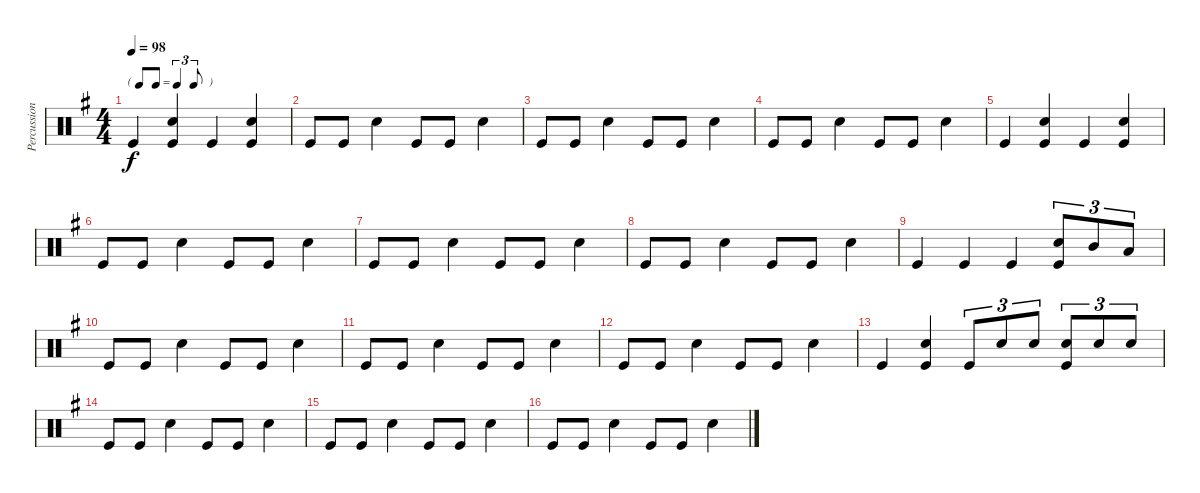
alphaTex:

\track ("Percussion" "Percussion") {instrument percussion}
\staff {score}
\articulation defaults
\ts (4 4)
\tf triplet8th
\tempo 98
\clef neutral
\ks g "Kick (hit)".4{dy f}
("Snare (hit) 2" "Kick (hit)").4 "Kick (hit)".4 ("Snare (hit) 2" "Kick (hit)").4 |
"Kick (hit)".8 "Kick (hit)".8 "Snare (hit) 2".4 "Kick (hit)".8 "Kick (hit)".8 "Snare (hit) 2".4 |
"Kick (hit)".8 "Kick (hit)".8 "Snare (hit) 2".4 "Kick (hit)".8 "Kick (hit)".8 "Snare (hit) 2".4 |
"Kick (hit)".8 "Kick (hit)".8 "Snare (hit) 2".4 "Kick (hit)".8 "Kick (hit)".8 "Snare (hit) 2".4 |
"Kick (hit)".4 ("Snare (hit) 2" "Kick (hit)").4 "Kick (hit)".4 ("Snare (hit) 2" "Kick (hit)").4 |
"Kick (hit)".8 "Kick (hit)".8 "Snare (hit) 2".4 "Kick (hit)".8 "Kick (hit)".8 "Snare (hit) 2".4 |
"Kick (hit)".8 "Kick (hit)".8 "Snare (hit) 2".4 "Kick (hit)".8 "Kick (hit)".8 "Snare (hit) 2".4 |
"Kick (hit)".8 "Kick (hit)".8 "Snare (hit) 2".4 "Kick (hit)".8 "Kick (hit)".8 "Snare (hit) 2".4 |
"Kick (hit)".4 "Kick (hit)".4 "Kick (hit)".4 ("Snare (hit) 2" "Kick (hit)").8{tu (3 2)} "Mid Tom (hit)".8{tu (3 2)} "Low Tom (hit)".8{tu (3 2)} |
"Kick (hit)".8 "Kick (hit)".8 "Snare (hit) 2".4 "Kick (hit)".8 "Kick (hit)".8 "Snare (hit) 2".4 |
"Kick (hit)".8 "Kick (hit)".8 "Snare (hit) 2".4 "Kick (hit)".8 "Kick (hit)".8 "Snare (hit) 2".4 |
"Kick (hit)".8 "Kick (hit)".8 "Snare (hit) 2".4 "Kick (hit)".8 "Kick (hit)".8 "Snare (hit) 2".4 |
"Kick (hit)".4 ("Snare (hit) 2" "Kick (hit)").4 "Kick (hit)".8{tu (3 2)} "Snare (hit) 2".8{tu (3 2)} "Snare (hit) 2".8{tu (3 2)} ("Snare (hit) 2" "Kick (hit)").8{tu (3 2)} "Snare (hit) 2".8{tu (3 2)} "Snare (hit) 2".8{tu (3 2)} |
"Kick (hit)".8 "Kick (hit)".8 "Snare (hit) 2".4 "Kick (hit)".8 "Kick (hit)".8 "Snare (hit) 2".4 |
"Kick (hit)".8 "Kick (hit)".8 "Snare (hit) 2".4 "Kick (hit)".8 "Kick (hit)".8 "Snare (hit) 2".4 |
"Kick (hit)".8 "Kick (hit)".8 "Snare (hit) 2".4 "Kick (hit)".8 "Kick (hit)".8 "Snare (hit) 2".4
